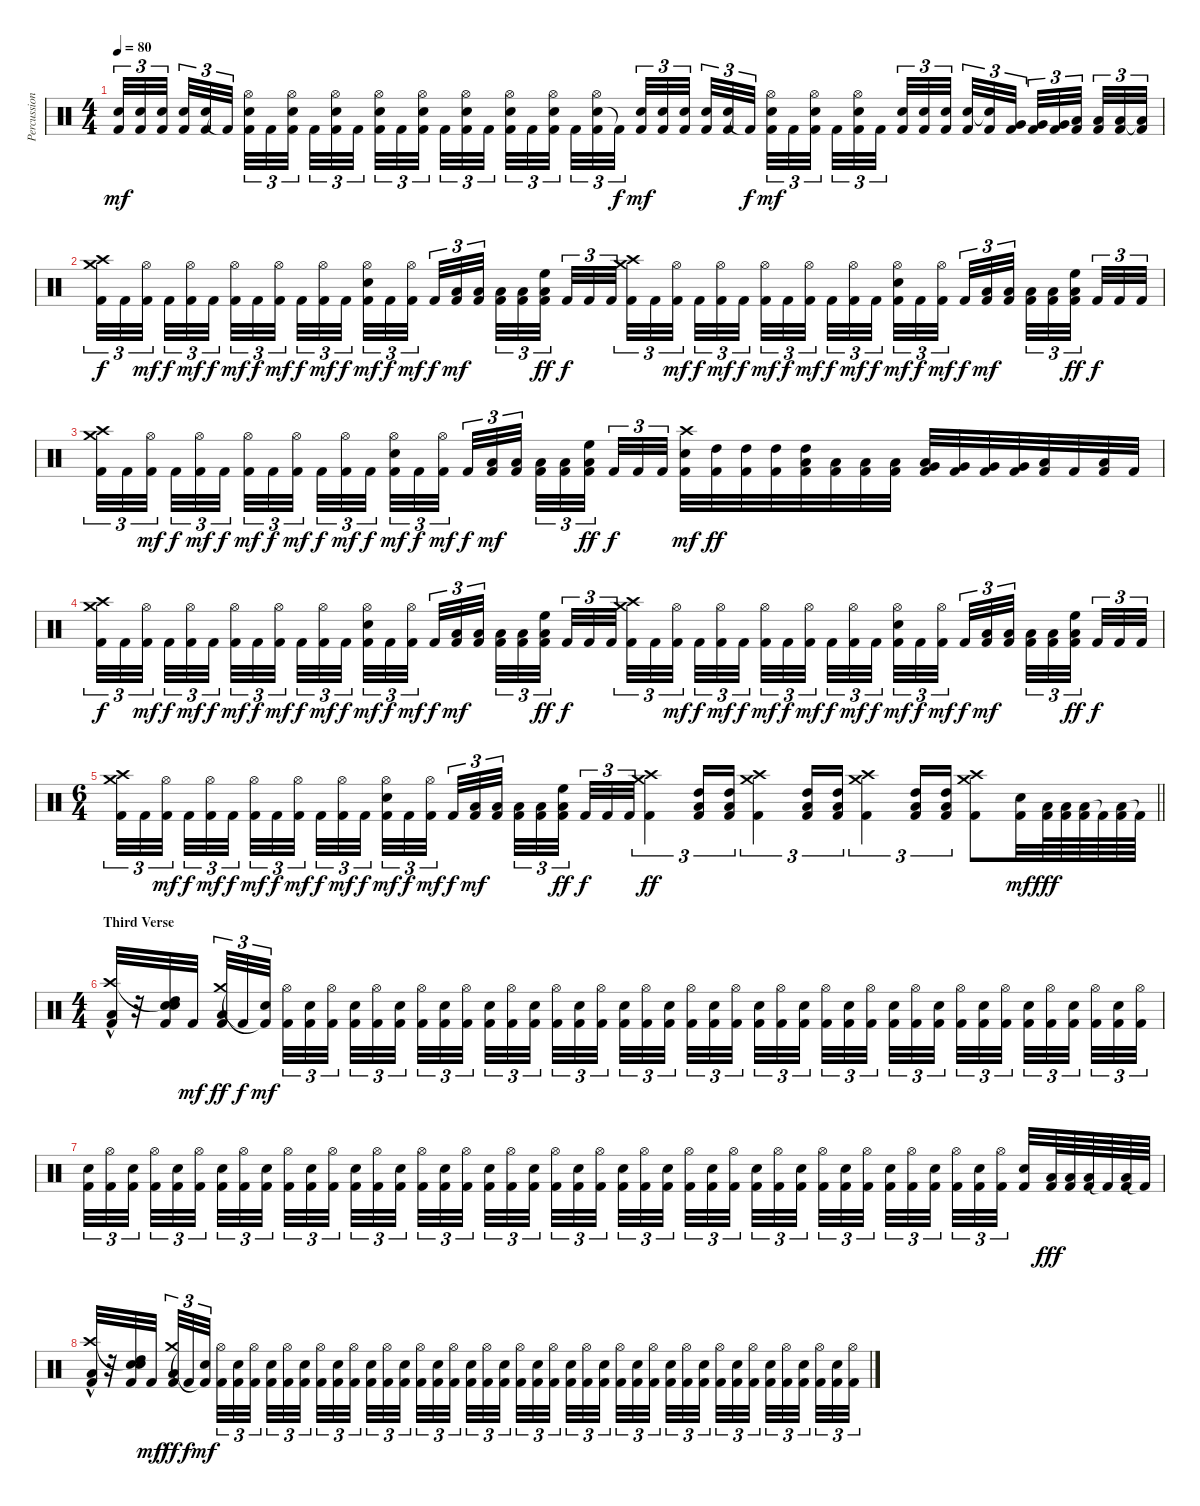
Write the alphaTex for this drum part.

\track ("Percussion" "Percussion") {instrument percussion}
\staff {score}
\articulation defaults
\ts (4 4)
\tempo 80
\clef neutral
\ks c
("Snare (hit) 2" "Kick (hit) 2").32{tu (3 2) dy mf} ("Snare (hit) 2" "Kick (hit) 2").32{tu (3 2)} ("Snare (hit) 2" "Kick (hit) 2").32{tu (3 2) beam splitsecondary} ("Snare (hit) 2" "Kick (hit) 2").32{tu (3 2)} ("Snare (hit) 2" "Kick (hit) 2").32{tu (3 2)} "Kick (hit) 2"{t}.32{tu (3 2) beam splitsecondary} ("Snare (hit) 2" "Hi-Hat (open)" "Kick (hit) 2").32{tu (3 2)} "Kick (hit) 2".32{tu (3 2)} ("Snare (hit) 2" "Hi-Hat (open)" "Kick (hit) 2").32{tu (3 2) beam splitsecondary} "Kick (hit) 2".32{tu (3 2)} ("Snare (hit) 2" "Hi-Hat (open)" "Kick (hit) 2").32{tu (3 2)} "Kick (hit) 2".32{tu (3 2)} ("Snare (hit) 2" "Hi-Hat (open)" "Kick (hit) 2").32{tu (3 2)} "Kick (hit) 2".32{tu (3 2)} ("Snare (hit) 2" "Hi-Hat (open)" "Kick (hit) 2").32{tu (3 2) beam splitsecondary} "Kick (hit) 2".32{tu (3 2)} ("Snare (hit) 2" "Hi-Hat (open)" "Kick (hit) 2").32{tu (3 2)} "Kick (hit) 2".32{tu (3 2) beam splitsecondary} ("Snare (hit) 2" "Hi-Hat (open)" "Kick (hit) 2").32{tu (3 2)} "Kick (hit) 2".32{tu (3 2)} ("Snare (hit) 2" "Hi-Hat (open)" "Kick (hit) 2").32{tu (3 2) beam splitsecondary} "Kick (hit) 2".32{tu (3 2)} ("Snare (hit) 2" "Hi-Hat (open)" "Kick (hit) 2").32{tu (3 2)} "Kick (hit) 2"{t}.32{tu (3 2) dy f} ("Snare (hit) 2" "Kick (hit) 2").32{tu (3 2) dy mf} ("Snare (hit) 2" "Kick (hit) 2").32{tu (3 2)} ("Snare (hit) 2" "Kick (hit) 2").32{tu (3 2) beam splitsecondary} ("Snare (hit) 2" "Kick (hit) 2").32{tu (3 2)} ("Snare (hit) 2" "Kick (hit) 2").32{tu (3 2)} "Kick (hit) 2"{t}.32{tu (3 2) dy f beam splitsecondary} ("Snare (hit) 2" "Hi-Hat (open)" "Kick (hit) 2").32{tu (3 2) dy mf} "Kick (hit) 2".32{tu (3 2)} ("Snare (hit) 2" "Hi-Hat (open)" "Kick (hit) 2").32{tu (3 2) beam splitsecondary} "Kick (hit) 2".32{tu (3 2)} ("Snare (hit) 2" "Hi-Hat (open)" "Kick (hit) 2").32{tu (3 2)} "Kick (hit) 2".32{tu (3 2)} ("Snare (hit) 2" "Kick (hit) 2").32{tu (3 2)} ("Snare (hit) 2" "Kick (hit) 2").32{tu (3 2)} ("Snare (hit) 2" "Kick (hit) 2").32{tu (3 2) beam splitsecondary} ("Snare (hit) 2" "Kick (hit) 2").32{tu (3 2)} ("Snare (hit) 2"{t} "Kick (hit) 2").32{tu (3 2)} ("Very Low Tom (hit)" "Kick (hit) 2").32{tu (3 2) beam splitsecondary} ("Very Low Tom (hit)" "Kick (hit) 2").32{tu (3 2)} ("Very Low Tom (hit)" "Kick (hit) 2").32{tu (3 2)} ("Low Floor Tom (hit)" "Kick (hit) 2").32{tu (3 2) beam splitsecondary} ("Low Floor Tom (hit)" "Kick (hit) 2").32{tu (3 2)} ("Low Floor Tom (hit)" "Kick (hit) 2").32{tu (3 2)} ("Low Floor Tom (hit)"{t} "Kick (hit) 2").32{tu (3 2)} |
("Crash medium (hit)" "Crash high (hit)" "Kick (hit) 2").32{tu (3 2) dy f} "Kick (hit) 2".32{tu (3 2)} ("Hi-Hat (open)" "Kick (hit) 2").32{tu (3 2) dy mf beam splitsecondary} "Kick (hit) 2".32{tu (3 2) dy f} ("Hi-Hat (open)" "Kick (hit) 2").32{tu (3 2) dy mf} "Kick (hit) 2".32{tu (3 2) dy f beam splitsecondary} ("Hi-Hat (open)" "Kick (hit) 2").32{tu (3 2) dy mf} "Kick (hit) 2".32{tu (3 2) dy f} ("Hi-Hat (open)" "Kick (hit) 2").32{tu (3 2) dy mf beam splitsecondary} "Kick (hit) 2".32{tu (3 2) dy f} ("Hi-Hat (open)" "Kick (hit) 2").32{tu (3 2) dy mf} "Kick (hit) 2".32{tu (3 2) dy f} ("Snare (hit) 2" "Hi-Hat (open)" "Kick (hit) 2").32{tu (3 2) dy mf} "Kick (hit) 2".32{tu (3 2) dy f} ("Hi-Hat (open)" "Kick (hit) 2").32{tu (3 2) dy mf beam splitsecondary} "Kick (hit) 2".32{tu (3 2) dy f} ("Low Tom (hit)" "Kick (hit) 2").32{tu (3 2) dy mf} ("Low Tom (hit)" "Kick (hit) 2").32{tu (3 2) beam splitsecondary} ("Low Tom (hit)" "Kick (hit) 2").32{tu (3 2)} ("Low Tom (hit)" "Kick (hit) 2").32{tu (3 2)} ("Low Tom (hit)" "High Floor Tom (hit)" "Kick (hit) 2").32{tu (3 2) dy ff beam splitsecondary} "Kick (hit) 2".32{tu (3 2) dy f} "Kick (hit) 2".32{tu (3 2)} "Kick (hit) 2".32{tu (3 2)} ("Crash medium (hit)" "Crash high (hit)" "Kick (hit) 2").32{tu (3 2)} "Kick (hit) 2".32{tu (3 2)} ("Hi-Hat (open)" "Kick (hit) 2").32{tu (3 2) dy mf beam splitsecondary} "Kick (hit) 2".32{tu (3 2) dy f} ("Hi-Hat (open)" "Kick (hit) 2").32{tu (3 2) dy mf} "Kick (hit) 2".32{tu (3 2) dy f beam splitsecondary} ("Hi-Hat (open)" "Kick (hit) 2").32{tu (3 2) dy mf} "Kick (hit) 2".32{tu (3 2) dy f} ("Hi-Hat (open)" "Kick (hit) 2").32{tu (3 2) dy mf beam splitsecondary} "Kick (hit) 2".32{tu (3 2) dy f} ("Hi-Hat (open)" "Kick (hit) 2").32{tu (3 2) dy mf} "Kick (hit) 2".32{tu (3 2) dy f} ("Snare (hit) 2" "Hi-Hat (open)" "Kick (hit) 2").32{tu (3 2) dy mf} "Kick (hit) 2".32{tu (3 2) dy f} ("Hi-Hat (open)" "Kick (hit) 2").32{tu (3 2) dy mf beam splitsecondary} "Kick (hit) 2".32{tu (3 2) dy f} ("Low Tom (hit)" "Kick (hit) 2").32{tu (3 2) dy mf} ("Low Tom (hit)" "Kick (hit) 2").32{tu (3 2) beam splitsecondary} ("Low Tom (hit)" "Kick (hit) 2").32{tu (3 2)} ("Low Tom (hit)" "Kick (hit) 2").32{tu (3 2)} ("Low Tom (hit)" "High Floor Tom (hit)" "Kick (hit) 2").32{tu (3 2) dy ff beam splitsecondary} "Kick (hit) 2".32{tu (3 2) dy f} "Kick (hit) 2".32{tu (3 2)} "Kick (hit) 2".32{tu (3 2)} |
("Crash medium (hit)" "Crash high (hit)" "Kick (hit) 2").32{tu (3 2)} "Kick (hit) 2".32{tu (3 2)} ("Hi-Hat (open)" "Kick (hit) 2").32{tu (3 2) dy mf beam splitsecondary} "Kick (hit) 2".32{tu (3 2) dy f} ("Hi-Hat (open)" "Kick (hit) 2").32{tu (3 2) dy mf} "Kick (hit) 2".32{tu (3 2) dy f beam splitsecondary} ("Hi-Hat (open)" "Kick (hit) 2").32{tu (3 2) dy mf} "Kick (hit) 2".32{tu (3 2) dy f} ("Hi-Hat (open)" "Kick (hit) 2").32{tu (3 2) dy mf beam splitsecondary} "Kick (hit) 2".32{tu (3 2) dy f} ("Hi-Hat (open)" "Kick (hit) 2").32{tu (3 2) dy mf} "Kick (hit) 2".32{tu (3 2) dy f} ("Snare (hit) 2" "Hi-Hat (open)" "Kick (hit) 2").32{tu (3 2) dy mf} "Kick (hit) 2".32{tu (3 2) dy f} ("Hi-Hat (open)" "Kick (hit) 2").32{tu (3 2) dy mf beam splitsecondary} "Kick (hit) 2".32{tu (3 2) dy f} ("Low Tom (hit)" "Kick (hit) 2").32{tu (3 2) dy mf} ("Low Tom (hit)" "Kick (hit) 2").32{tu (3 2) beam splitsecondary} ("Low Tom (hit)" "Kick (hit) 2").32{tu (3 2)} ("Low Tom (hit)" "Kick (hit) 2").32{tu (3 2)} ("Low Tom (hit)" "High Floor Tom (hit)" "Kick (hit) 2").32{tu (3 2) dy ff beam splitsecondary} "Kick (hit) 2".32{tu (3 2) dy f} "Kick (hit) 2".32{tu (3 2)} "Kick (hit) 2".32{tu (3 2)} ("Crash high (hit)" "Snare (hit) 2" "Kick (hit) 2").32{dy mf} ("High Tom (hit)" "Kick (hit) 2").32{dy ff} ("High Tom (hit)" "Kick (hit) 2").32 ("High Tom (hit)" "Kick (hit) 2").32 ("High Tom (hit)" "Low Tom (hit)" "Kick (hit) 2").32 ("Low Tom (hit)" "Kick (hit) 2").32 ("Low Tom (hit)" "Kick (hit) 2").32 ("Low Tom (hit)" "Kick (hit) 2").32 ("Low Tom (hit)" "Very Low Tom (hit)" "Kick (hit) 2").32 ("Very Low Tom (hit)" "Kick (hit) 2").32 ("Very Low Tom (hit)" "Kick (hit) 2").32 ("Very Low Tom (hit)" "Kick (hit) 2").32 ("Low Floor Tom (hit)" "Kick (hit) 2").32 "Kick (hit) 2".32 ("Low Floor Tom (hit)" "Kick (hit) 2").32 "Kick (hit) 2".32 |
("Crash medium (hit)" "Crash high (hit)" "Kick (hit) 2").32{tu (3 2) dy f} "Kick (hit) 2".32{tu (3 2)} ("Hi-Hat (open)" "Kick (hit) 2").32{tu (3 2) dy mf beam splitsecondary} "Kick (hit) 2".32{tu (3 2) dy f} ("Hi-Hat (open)" "Kick (hit) 2").32{tu (3 2) dy mf} "Kick (hit) 2".32{tu (3 2) dy f beam splitsecondary} ("Hi-Hat (open)" "Kick (hit) 2").32{tu (3 2) dy mf} "Kick (hit) 2".32{tu (3 2) dy f} ("Hi-Hat (open)" "Kick (hit) 2").32{tu (3 2) dy mf beam splitsecondary} "Kick (hit) 2".32{tu (3 2) dy f} ("Hi-Hat (open)" "Kick (hit) 2").32{tu (3 2) dy mf} "Kick (hit) 2".32{tu (3 2) dy f} ("Snare (hit) 2" "Hi-Hat (open)" "Kick (hit) 2").32{tu (3 2) dy mf} "Kick (hit) 2".32{tu (3 2) dy f} ("Hi-Hat (open)" "Kick (hit) 2").32{tu (3 2) dy mf beam splitsecondary} "Kick (hit) 2".32{tu (3 2) dy f} ("Low Tom (hit)" "Kick (hit) 2").32{tu (3 2) dy mf} ("Low Tom (hit)" "Kick (hit) 2").32{tu (3 2) beam splitsecondary} ("Low Tom (hit)" "Kick (hit) 2").32{tu (3 2)} ("Low Tom (hit)" "Kick (hit) 2").32{tu (3 2)} ("Low Tom (hit)" "High Floor Tom (hit)" "Kick (hit) 2").32{tu (3 2) dy ff beam splitsecondary} "Kick (hit) 2".32{tu (3 2) dy f} "Kick (hit) 2".32{tu (3 2)} "Kick (hit) 2".32{tu (3 2)} ("Crash medium (hit)" "Crash high (hit)" "Kick (hit) 2").32{tu (3 2)} "Kick (hit) 2".32{tu (3 2)} ("Hi-Hat (open)" "Kick (hit) 2").32{tu (3 2) dy mf beam splitsecondary} "Kick (hit) 2".32{tu (3 2) dy f} ("Hi-Hat (open)" "Kick (hit) 2").32{tu (3 2) dy mf} "Kick (hit) 2".32{tu (3 2) dy f beam splitsecondary} ("Hi-Hat (open)" "Kick (hit) 2").32{tu (3 2) dy mf} "Kick (hit) 2".32{tu (3 2) dy f} ("Hi-Hat (open)" "Kick (hit) 2").32{tu (3 2) dy mf beam splitsecondary} "Kick (hit) 2".32{tu (3 2) dy f} ("Hi-Hat (open)" "Kick (hit) 2").32{tu (3 2) dy mf} "Kick (hit) 2".32{tu (3 2) dy f} ("Snare (hit) 2" "Hi-Hat (open)" "Kick (hit) 2").32{tu (3 2) dy mf} "Kick (hit) 2".32{tu (3 2) dy f} ("Hi-Hat (open)" "Kick (hit) 2").32{tu (3 2) dy mf beam splitsecondary} "Kick (hit) 2".32{tu (3 2) dy f} ("Low Tom (hit)" "Kick (hit) 2").32{tu (3 2) dy mf} ("Low Tom (hit)" "Kick (hit) 2").32{tu (3 2) beam splitsecondary} ("Low Tom (hit)" "Kick (hit) 2").32{tu (3 2)} ("Low Tom (hit)" "Kick (hit) 2").32{tu (3 2)} ("Low Tom (hit)" "High Floor Tom (hit)" "Kick (hit) 2").32{tu (3 2) dy ff beam splitsecondary} "Kick (hit) 2".32{tu (3 2) dy f} "Kick (hit) 2".32{tu (3 2)} "Kick (hit) 2".32{tu (3 2)} |
\ts (6 4)
\barLineRight lightlight
("Crash medium (hit)" "Crash high (hit)" "Kick (hit) 2").32{tu (3 2)} "Kick (hit) 2".32{tu (3 2)} ("Hi-Hat (open)" "Kick (hit) 2").32{tu (3 2) dy mf beam splitsecondary} "Kick (hit) 2".32{tu (3 2) dy f} ("Hi-Hat (open)" "Kick (hit) 2").32{tu (3 2) dy mf} "Kick (hit) 2".32{tu (3 2) dy f beam splitsecondary} ("Hi-Hat (open)" "Kick (hit) 2").32{tu (3 2) dy mf} "Kick (hit) 2".32{tu (3 2) dy f} ("Hi-Hat (open)" "Kick (hit) 2").32{tu (3 2) dy mf beam splitsecondary} "Kick (hit) 2".32{tu (3 2) dy f} ("Hi-Hat (open)" "Kick (hit) 2").32{tu (3 2) dy mf} "Kick (hit) 2".32{tu (3 2) dy f beam splitsecondary} ("Snare (hit) 2" "Hi-Hat (open)" "Kick (hit) 2").32{tu (3 2) dy mf} "Kick (hit) 2".32{tu (3 2) dy f} ("Hi-Hat (open)" "Kick (hit) 2").32{tu (3 2) dy mf beam splitsecondary} "Kick (hit) 2".32{tu (3 2) dy f} ("Low Tom (hit)" "Kick (hit) 2").32{tu (3 2) dy mf} ("Low Tom (hit)" "Kick (hit) 2").32{tu (3 2) beam splitsecondary} ("Low Tom (hit)" "Kick (hit) 2").32{tu (3 2)} ("Low Tom (hit)" "Kick (hit) 2").32{tu (3 2)} ("Low Tom (hit)" "High Floor Tom (hit)" "Kick (hit) 2").32{tu (3 2) dy ff beam splitsecondary} "Kick (hit) 2".32{tu (3 2) dy f} "Kick (hit) 2".32{tu (3 2)} "Kick (hit) 2".32{tu (3 2)} ("Crash medium (hit)" "Crash high (hit)" "Kick (hit) 2").4{tu (3 2) dy ff} ("High Tom (hit)" "Low Tom (hit)" "Kick (hit) 2").16{tu (3 2)} ("High Tom (hit)" "Low Tom (hit)" "Kick (hit) 2").16{tu (3 2)} ("Crash medium (hit)" "Crash high (hit)" "Kick (hit) 2").4{tu (3 2)} ("High Tom (hit)" "Low Tom (hit)" "Kick (hit) 2").16{tu (3 2)} ("High Tom (hit)" "Low Tom (hit)" "Kick (hit) 2").16{tu (3 2)} ("Crash medium (hit)" "Crash high (hit)" "Kick (hit) 2").4{tu (3 2)} ("High Tom (hit)" "Low Tom (hit)" "Kick (hit) 2").16{tu (3 2)} ("High Tom (hit)" "Low Tom (hit)" "Kick (hit) 2").16{tu (3 2)} ("Crash medium (hit)" "Crash high (hit)" "Kick (hit) 2").8 ("Snare (hit) 2" "Kick (hit) 2").32{dy mf} ("Low Floor Tom (hit)" "Kick (hit) 2").64{dy fff} ("Low Floor Tom (hit)" "Kick (hit) 2").64 ("Low Floor Tom (hit)" "Kick (hit) 2").64 "Kick (hit) 2"{t}.64 ("Low Tom (hit)" "Kick (hit) 2").64 "Kick (hit) 2"{t}.64 |
\ts (4 4)
\section ("" "Third Verse")
("Crash high (hit)" "Low Tom (hit)"{hac} "Kick (hit) 2").32 r.32 ("Snare (hit)"{t} "Snare (hit) 2" "High Tom (hit)" "Kick (hit) 2").32 "Kick (hit) 2".32{dy mf beam splitsecondary} ("Crash medium (hit)" "Low Tom (hit)" "Kick (hit) 2").32{tu (3 2) dy ff} "Kick (hit) 2"{t}.32{tu (3 2) dy f} ("Snare (hit) 2" "Kick (hit) 2"{t}).32{tu (3 2) dy mf beam splitsecondary} ("Hi-Hat (open)" "Kick (hit) 2").32{tu (3 2)} ("Snare (hit) 2" "Kick (hit) 2").32{tu (3 2)} ("Hi-Hat (open)" "Kick (hit) 2").32{tu (3 2)} ("Snare (hit) 2" "Kick (hit) 2").32{tu (3 2)} ("Hi-Hat (open)" "Kick (hit) 2").32{tu (3 2)} ("Snare (hit) 2" "Kick (hit) 2").32{tu (3 2) beam splitsecondary} ("Hi-Hat (open)" "Kick (hit) 2").32{tu (3 2)} ("Snare (hit) 2" "Kick (hit) 2").32{tu (3 2)} ("Hi-Hat (open)" "Kick (hit) 2").32{tu (3 2) beam splitsecondary} ("Snare (hit) 2" "Kick (hit) 2").32{tu (3 2)} ("Hi-Hat (open)" "Kick (hit) 2").32{tu (3 2)} ("Snare (hit) 2" "Kick (hit) 2").32{tu (3 2) beam splitsecondary} ("Hi-Hat (open)" "Kick (hit) 2").32{tu (3 2)} ("Snare (hit) 2" "Kick (hit) 2").32{tu (3 2)} ("Hi-Hat (open)" "Kick (hit) 2").32{tu (3 2)} ("Snare (hit) 2" "Kick (hit) 2").32{tu (3 2)} ("Hi-Hat (open)" "Kick (hit) 2").32{tu (3 2)} ("Snare (hit) 2" "Kick (hit) 2").32{tu (3 2) beam splitsecondary} ("Hi-Hat (open)" "Kick (hit) 2").32{tu (3 2)} ("Snare (hit) 2" "Kick (hit) 2").32{tu (3 2)} ("Hi-Hat (open)" "Kick (hit) 2").32{tu (3 2) beam splitsecondary} ("Snare (hit) 2" "Kick (hit) 2").32{tu (3 2)} ("Hi-Hat (open)" "Kick (hit) 2").32{tu (3 2)} ("Snare (hit) 2" "Kick (hit) 2").32{tu (3 2) beam splitsecondary} ("Hi-Hat (open)" "Kick (hit) 2").32{tu (3 2)} ("Snare (hit) 2" "Kick (hit) 2").32{tu (3 2)} ("Hi-Hat (open)" "Kick (hit) 2").32{tu (3 2)} ("Snare (hit) 2" "Kick (hit) 2").32{tu (3 2)} ("Hi-Hat (open)" "Kick (hit) 2").32{tu (3 2)} ("Snare (hit) 2" "Kick (hit) 2").32{tu (3 2) beam splitsecondary} ("Hi-Hat (open)" "Kick (hit) 2").32{tu (3 2)} ("Snare (hit) 2" "Kick (hit) 2").32{tu (3 2)} ("Hi-Hat (open)" "Kick (hit) 2").32{tu (3 2) beam splitsecondary} ("Snare (hit) 2" "Kick (hit) 2").32{tu (3 2)} ("Hi-Hat (open)" "Kick (hit) 2").32{tu (3 2)} ("Snare (hit) 2" "Kick (hit) 2").32{tu (3 2) beam splitsecondary} ("Hi-Hat (open)" "Kick (hit) 2").32{tu (3 2)} ("Snare (hit) 2" "Kick (hit) 2").32{tu (3 2)} ("Hi-Hat (open)" "Kick (hit) 2").32{tu (3 2)} |
("Snare (hit) 2" "Kick (hit) 2").32{tu (3 2)} ("Hi-Hat (open)" "Kick (hit) 2").32{tu (3 2)} ("Snare (hit) 2" "Kick (hit) 2").32{tu (3 2) beam splitsecondary} ("Hi-Hat (open)" "Kick (hit) 2").32{tu (3 2)} ("Snare (hit) 2" "Kick (hit) 2").32{tu (3 2)} ("Hi-Hat (open)" "Kick (hit) 2").32{tu (3 2) beam splitsecondary} ("Snare (hit) 2" "Kick (hit) 2").32{tu (3 2)} ("Hi-Hat (open)" "Kick (hit) 2").32{tu (3 2)} ("Snare (hit) 2" "Kick (hit) 2").32{tu (3 2) beam splitsecondary} ("Hi-Hat (open)" "Kick (hit) 2").32{tu (3 2)} ("Snare (hit) 2" "Kick (hit) 2").32{tu (3 2)} ("Hi-Hat (open)" "Kick (hit) 2").32{tu (3 2)} ("Snare (hit) 2" "Kick (hit) 2").32{tu (3 2)} ("Hi-Hat (open)" "Kick (hit) 2").32{tu (3 2)} ("Snare (hit) 2" "Kick (hit) 2").32{tu (3 2) beam splitsecondary} ("Hi-Hat (open)" "Kick (hit) 2").32{tu (3 2)} ("Snare (hit) 2" "Kick (hit) 2").32{tu (3 2)} ("Hi-Hat (open)" "Kick (hit) 2").32{tu (3 2) beam splitsecondary} ("Snare (hit) 2" "Kick (hit) 2").32{tu (3 2)} ("Hi-Hat (open)" "Kick (hit) 2").32{tu (3 2)} ("Snare (hit) 2" "Kick (hit) 2").32{tu (3 2) beam splitsecondary} ("Hi-Hat (open)" "Kick (hit) 2").32{tu (3 2)} ("Snare (hit) 2" "Kick (hit) 2").32{tu (3 2)} ("Hi-Hat (open)" "Kick (hit) 2").32{tu (3 2)} ("Snare (hit) 2" "Kick (hit) 2").32{tu (3 2)} ("Hi-Hat (open)" "Kick (hit) 2").32{tu (3 2)} ("Snare (hit) 2" "Kick (hit) 2").32{tu (3 2) beam splitsecondary} ("Hi-Hat (open)" "Kick (hit) 2").32{tu (3 2)} ("Snare (hit) 2" "Kick (hit) 2").32{tu (3 2)} ("Hi-Hat (open)" "Kick (hit) 2").32{tu (3 2) beam splitsecondary} ("Snare (hit) 2" "Kick (hit) 2").32{tu (3 2)} ("Hi-Hat (open)" "Kick (hit) 2").32{tu (3 2)} ("Snare (hit) 2" "Kick (hit) 2").32{tu (3 2) beam splitsecondary} ("Hi-Hat (open)" "Kick (hit) 2").32{tu (3 2)} ("Snare (hit) 2" "Kick (hit) 2").32{tu (3 2)} ("Hi-Hat (open)" "Kick (hit) 2").32{tu (3 2)} ("Snare (hit) 2" "Kick (hit) 2").32{tu (3 2)} ("Hi-Hat (open)" "Kick (hit) 2").32{tu (3 2)} ("Snare (hit) 2" "Kick (hit) 2").32{tu (3 2) beam splitsecondary} ("Hi-Hat (open)" "Kick (hit) 2").32{tu (3 2)} ("Snare (hit) 2" "Kick (hit) 2").32{tu (3 2)} ("Hi-Hat (open)" "Kick (hit) 2").32{tu (3 2) beam splitsecondary} ("Snare (hit) 2" "Kick (hit) 2").32 ("Low Floor Tom (hit)" "Kick (hit) 2").64{dy fff} ("Low Floor Tom (hit)" "Kick (hit) 2").64 ("Low Floor Tom (hit)" "Kick (hit) 2").64 "Kick (hit) 2"{t}.64 ("Low Tom (hit)" "Kick (hit) 2").64 "Kick (hit) 2"{t}.64 |
("Crash high (hit)" "Low Tom (hit)"{hac} "Kick (hit) 2").32 r.32 ("Snare (hit)"{t} "Snare (hit) 2" "High Tom (hit)" "Kick (hit) 2").32 "Kick (hit) 2".32{dy mf beam splitsecondary} ("Crash medium (hit)" "Low Tom (hit)" "Kick (hit) 2").32{tu (3 2) dy ff} "Kick (hit) 2"{t}.32{tu (3 2) dy f} ("Snare (hit) 2" "Kick (hit) 2"{t}).32{tu (3 2) dy mf beam splitsecondary} ("Hi-Hat (open)" "Kick (hit) 2").32{tu (3 2)} ("Snare (hit) 2" "Kick (hit) 2").32{tu (3 2)} ("Hi-Hat (open)" "Kick (hit) 2").32{tu (3 2)} ("Snare (hit) 2" "Kick (hit) 2").32{tu (3 2)} ("Hi-Hat (open)" "Kick (hit) 2").32{tu (3 2)} ("Snare (hit) 2" "Kick (hit) 2").32{tu (3 2) beam splitsecondary} ("Hi-Hat (open)" "Kick (hit) 2").32{tu (3 2)} ("Snare (hit) 2" "Kick (hit) 2").32{tu (3 2)} ("Hi-Hat (open)" "Kick (hit) 2").32{tu (3 2) beam splitsecondary} ("Snare (hit) 2" "Kick (hit) 2").32{tu (3 2)} ("Hi-Hat (open)" "Kick (hit) 2").32{tu (3 2)} ("Snare (hit) 2" "Kick (hit) 2").32{tu (3 2) beam splitsecondary} ("Hi-Hat (open)" "Kick (hit) 2").32{tu (3 2)} ("Snare (hit) 2" "Kick (hit) 2").32{tu (3 2)} ("Hi-Hat (open)" "Kick (hit) 2").32{tu (3 2)} ("Snare (hit) 2" "Kick (hit) 2").32{tu (3 2)} ("Hi-Hat (open)" "Kick (hit) 2").32{tu (3 2)} ("Snare (hit) 2" "Kick (hit) 2").32{tu (3 2) beam splitsecondary} ("Hi-Hat (open)" "Kick (hit) 2").32{tu (3 2)} ("Snare (hit) 2" "Kick (hit) 2").32{tu (3 2)} ("Hi-Hat (open)" "Kick (hit) 2").32{tu (3 2) beam splitsecondary} ("Snare (hit) 2" "Kick (hit) 2").32{tu (3 2)} ("Hi-Hat (open)" "Kick (hit) 2").32{tu (3 2)} ("Snare (hit) 2" "Kick (hit) 2").32{tu (3 2) beam splitsecondary} ("Hi-Hat (open)" "Kick (hit) 2").32{tu (3 2)} ("Snare (hit) 2" "Kick (hit) 2").32{tu (3 2)} ("Hi-Hat (open)" "Kick (hit) 2").32{tu (3 2)} ("Snare (hit) 2" "Kick (hit) 2").32{tu (3 2)} ("Hi-Hat (open)" "Kick (hit) 2").32{tu (3 2)} ("Snare (hit) 2" "Kick (hit) 2").32{tu (3 2) beam splitsecondary} ("Hi-Hat (open)" "Kick (hit) 2").32{tu (3 2)} ("Snare (hit) 2" "Kick (hit) 2").32{tu (3 2)} ("Hi-Hat (open)" "Kick (hit) 2").32{tu (3 2) beam splitsecondary} ("Snare (hit) 2" "Kick (hit) 2").32{tu (3 2)} ("Hi-Hat (open)" "Kick (hit) 2").32{tu (3 2)} ("Snare (hit) 2" "Kick (hit) 2").32{tu (3 2) beam splitsecondary} ("Hi-Hat (open)" "Kick (hit) 2").32{tu (3 2)} ("Snare (hit) 2" "Kick (hit) 2").32{tu (3 2)} ("Hi-Hat (open)" "Kick (hit) 2").32{tu (3 2)}
